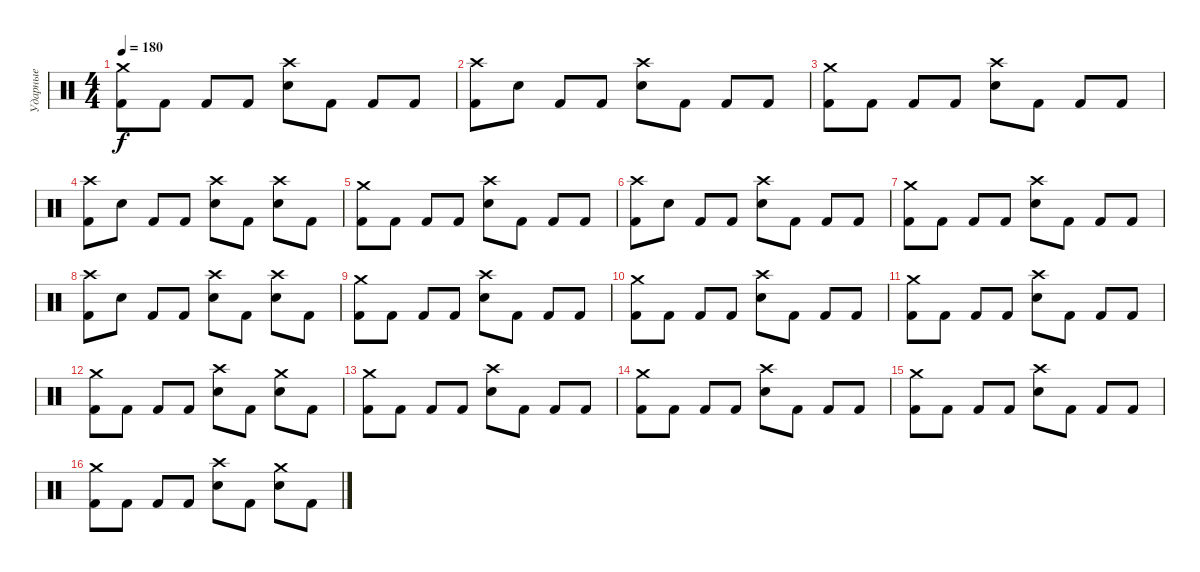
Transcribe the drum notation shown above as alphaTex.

\track ("Ударные" "Ударные") {instrument percussion}
\staff {score}
\articulation defaults
\ts (4 4)
\tempo 180
\clef neutral
\ks c
("Crash medium (hit)" "Kick (hit) 2").8{dy f} "Kick (hit) 2".8 "Kick (hit) 2".8 "Kick (hit) 2".8 ("Crash high (hit)" "Electric Snare (hit)").8 "Kick (hit) 2".8 "Kick (hit) 2".8 "Kick (hit) 2".8 |
("Crash high (hit)" "Kick (hit) 2").8 "Electric Snare (hit)".8 "Kick (hit) 2".8 "Kick (hit) 2".8 ("Crash high (hit)" "Electric Snare (hit)").8 "Kick (hit) 2".8 "Kick (hit) 2".8 "Kick (hit) 2".8 |
("Crash medium (hit)" "Kick (hit) 2").8 "Kick (hit) 2".8 "Kick (hit) 2".8 "Kick (hit) 2".8 ("Crash high (hit)" "Electric Snare (hit)").8 "Kick (hit) 2".8 "Kick (hit) 2".8 "Kick (hit) 2".8 |
("Crash high (hit)" "Kick (hit) 2").8 "Electric Snare (hit)".8 "Kick (hit) 2".8 "Kick (hit) 2".8 ("Crash high (hit)" "Electric Snare (hit)").8 "Kick (hit) 2".8 ("Crash high (hit)" "Electric Snare (hit)").8 "Kick (hit) 2".8 |
("Crash medium (hit)" "Kick (hit) 2").8 "Kick (hit) 2".8 "Kick (hit) 2".8 "Kick (hit) 2".8 ("Crash high (hit)" "Electric Snare (hit)").8 "Kick (hit) 2".8 "Kick (hit) 2".8 "Kick (hit) 2".8 |
("Crash high (hit)" "Kick (hit) 2").8 "Electric Snare (hit)".8 "Kick (hit) 2".8 "Kick (hit) 2".8 ("Crash high (hit)" "Electric Snare (hit)").8 "Kick (hit) 2".8 "Kick (hit) 2".8 "Kick (hit) 2".8 |
("Crash medium (hit)" "Kick (hit) 2").8 "Kick (hit) 2".8 "Kick (hit) 2".8 "Kick (hit) 2".8 ("Crash high (hit)" "Electric Snare (hit)").8 "Kick (hit) 2".8 "Kick (hit) 2".8 "Kick (hit) 2".8 |
("Crash high (hit)" "Kick (hit) 2").8 "Electric Snare (hit)".8 "Kick (hit) 2".8 "Kick (hit) 2".8 ("Crash high (hit)" "Electric Snare (hit)").8 "Kick (hit) 2".8 ("Crash high (hit)" "Electric Snare (hit)").8 "Kick (hit) 2".8 |
("Crash medium (hit)" "Kick (hit) 2").8 "Kick (hit) 2".8 "Kick (hit) 2".8 "Kick (hit) 2".8 ("Crash high (hit)" "Electric Snare (hit)").8 "Kick (hit) 2".8 "Kick (hit) 2".8 "Kick (hit) 2".8 |
("Crash medium (hit)" "Kick (hit) 2").8 "Kick (hit) 2".8 "Kick (hit) 2".8 "Kick (hit) 2".8 ("Crash high (hit)" "Electric Snare (hit)").8 "Kick (hit) 2".8 "Kick (hit) 2".8 "Kick (hit) 2".8 |
("Crash medium (hit)" "Kick (hit) 2").8 "Kick (hit) 2".8 "Kick (hit) 2".8 "Kick (hit) 2".8 ("Crash high (hit)" "Electric Snare (hit)").8 "Kick (hit) 2".8 "Kick (hit) 2".8 "Kick (hit) 2".8 |
("Crash medium (hit)" "Kick (hit) 2").8 "Kick (hit) 2".8 "Kick (hit) 2".8 "Kick (hit) 2".8 ("Crash high (hit)" "Electric Snare (hit)").8 "Kick (hit) 2".8 ("Crash medium (hit)" "Electric Snare (hit)").8 "Kick (hit) 2".8 |
("Crash medium (hit)" "Kick (hit) 2").8 "Kick (hit) 2".8 "Kick (hit) 2".8 "Kick (hit) 2".8 ("Crash high (hit)" "Electric Snare (hit)").8 "Kick (hit) 2".8 "Kick (hit) 2".8 "Kick (hit) 2".8 |
("Crash medium (hit)" "Kick (hit) 2").8 "Kick (hit) 2".8 "Kick (hit) 2".8 "Kick (hit) 2".8 ("Crash high (hit)" "Electric Snare (hit)").8 "Kick (hit) 2".8 "Kick (hit) 2".8 "Kick (hit) 2".8 |
("Crash medium (hit)" "Kick (hit) 2").8 "Kick (hit) 2".8 "Kick (hit) 2".8 "Kick (hit) 2".8 ("Crash high (hit)" "Electric Snare (hit)").8 "Kick (hit) 2".8 "Kick (hit) 2".8 "Kick (hit) 2".8 |
("Crash medium (hit)" "Kick (hit) 2").8 "Kick (hit) 2".8 "Kick (hit) 2".8 "Kick (hit) 2".8 ("Crash high (hit)" "Electric Snare (hit)").8 "Kick (hit) 2".8 ("Crash medium (hit)" "Electric Snare (hit)").8 "Kick (hit) 2".8
